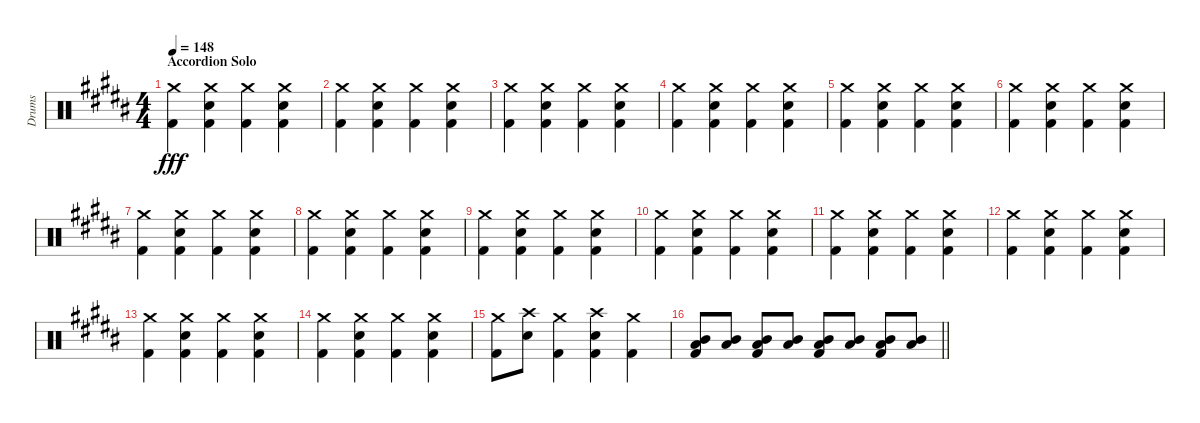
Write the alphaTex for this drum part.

\track ("Drums" "Drums") {instrument percussion}
\staff {score}
\articulation defaults
\ts (4 4)
\section ("" "Accordion Solo")
\tempo 148
\clef neutral
\ks b
("Crash medium (hit)" "Kick (hit) 2").4{dy fff} ("Crash medium (hit)" "Snare (hit) 2" "Kick (hit) 2").4 ("Crash medium (hit)" "Kick (hit) 2").4 ("Crash medium (hit)" "Snare (hit) 2" "Kick (hit) 2").4 |
("Crash medium (hit)" "Kick (hit) 2").4 ("Crash medium (hit)" "Snare (hit) 2" "Kick (hit) 2").4 ("Crash medium (hit)" "Kick (hit) 2").4 ("Crash medium (hit)" "Snare (hit) 2" "Kick (hit) 2").4 |
("Crash medium (hit)" "Kick (hit) 2").4 ("Crash medium (hit)" "Snare (hit) 2" "Kick (hit) 2").4 ("Crash medium (hit)" "Kick (hit) 2").4 ("Crash medium (hit)" "Snare (hit) 2" "Kick (hit) 2").4 |
("Crash medium (hit)" "Kick (hit) 2").4 ("Crash medium (hit)" "Snare (hit) 2" "Kick (hit) 2").4 ("Crash medium (hit)" "Kick (hit) 2").4 ("Crash medium (hit)" "Snare (hit) 2" "Kick (hit) 2").4 |
("Crash medium (hit)" "Kick (hit) 2").4 ("Crash medium (hit)" "Snare (hit) 2" "Kick (hit) 2").4 ("Crash medium (hit)" "Kick (hit) 2").4 ("Crash medium (hit)" "Snare (hit) 2" "Kick (hit) 2").4 |
("Crash medium (hit)" "Kick (hit) 2").4 ("Crash medium (hit)" "Snare (hit) 2" "Kick (hit) 2").4 ("Crash medium (hit)" "Kick (hit) 2").4 ("Crash medium (hit)" "Snare (hit) 2" "Kick (hit) 2").4 |
("Crash medium (hit)" "Kick (hit) 2").4 ("Crash medium (hit)" "Snare (hit) 2" "Kick (hit) 2").4 ("Crash medium (hit)" "Kick (hit) 2").4 ("Crash medium (hit)" "Snare (hit) 2" "Kick (hit) 2").4 |
("Crash medium (hit)" "Kick (hit) 2").4 ("Crash medium (hit)" "Snare (hit) 2" "Kick (hit) 2").4 ("Crash medium (hit)" "Kick (hit) 2").4 ("Crash medium (hit)" "Snare (hit) 2" "Kick (hit) 2").4 |
("Crash medium (hit)" "Kick (hit) 2").4 ("Crash medium (hit)" "Snare (hit) 2" "Kick (hit) 2").4 ("Crash medium (hit)" "Kick (hit) 2").4 ("Crash medium (hit)" "Snare (hit) 2" "Kick (hit) 2").4 |
("Crash medium (hit)" "Kick (hit) 2").4 ("Crash medium (hit)" "Snare (hit) 2" "Kick (hit) 2").4 ("Crash medium (hit)" "Kick (hit) 2").4 ("Crash medium (hit)" "Snare (hit) 2" "Kick (hit) 2").4 |
("Crash medium (hit)" "Kick (hit) 2").4 ("Crash medium (hit)" "Snare (hit) 2" "Kick (hit) 2").4 ("Crash medium (hit)" "Kick (hit) 2").4 ("Crash medium (hit)" "Snare (hit) 2" "Kick (hit) 2").4 |
("Crash medium (hit)" "Kick (hit) 2").4 ("Crash medium (hit)" "Snare (hit) 2" "Kick (hit) 2").4 ("Crash medium (hit)" "Kick (hit) 2").4 ("Crash medium (hit)" "Snare (hit) 2" "Kick (hit) 2").4 |
("Crash medium (hit)" "Kick (hit) 2").4 ("Crash medium (hit)" "Snare (hit) 2" "Kick (hit) 2").4 ("Crash medium (hit)" "Kick (hit) 2").4 ("Crash medium (hit)" "Snare (hit) 2" "Kick (hit) 2").4 |
("Crash medium (hit)" "Kick (hit) 2").4 ("Crash medium (hit)" "Snare (hit) 2" "Kick (hit) 2").4 ("Crash medium (hit)" "Kick (hit) 2").4 ("Crash medium (hit)" "Snare (hit) 2" "Kick (hit) 2").4 |
("Crash medium (hit)" "Kick (hit) 2").8 ("Crash high (hit)" "Snare (hit) 2").8 ("Crash medium (hit)" "Kick (hit) 2").4 ("Crash high (hit)" "Snare (hit) 2" "Kick (hit) 2").4 ("Crash medium (hit)" "Kick (hit) 2").4 |
\barLineRight lightlight
("Mid Tom (hit)" "Low Tom (hit)" "Kick (hit) 2").8 ("Mid Tom (hit)" "Low Tom (hit)").8 ("Mid Tom (hit)" "Low Tom (hit)" "Kick (hit) 2").8 ("Mid Tom (hit)" "Low Tom (hit)").8 ("Mid Tom (hit)" "Low Tom (hit)" "Kick (hit) 2").8 ("Mid Tom (hit)" "Low Tom (hit)").8 ("Mid Tom (hit)" "Low Tom (hit)" "Kick (hit) 2").8 ("Mid Tom (hit)" "Low Tom (hit)").8
